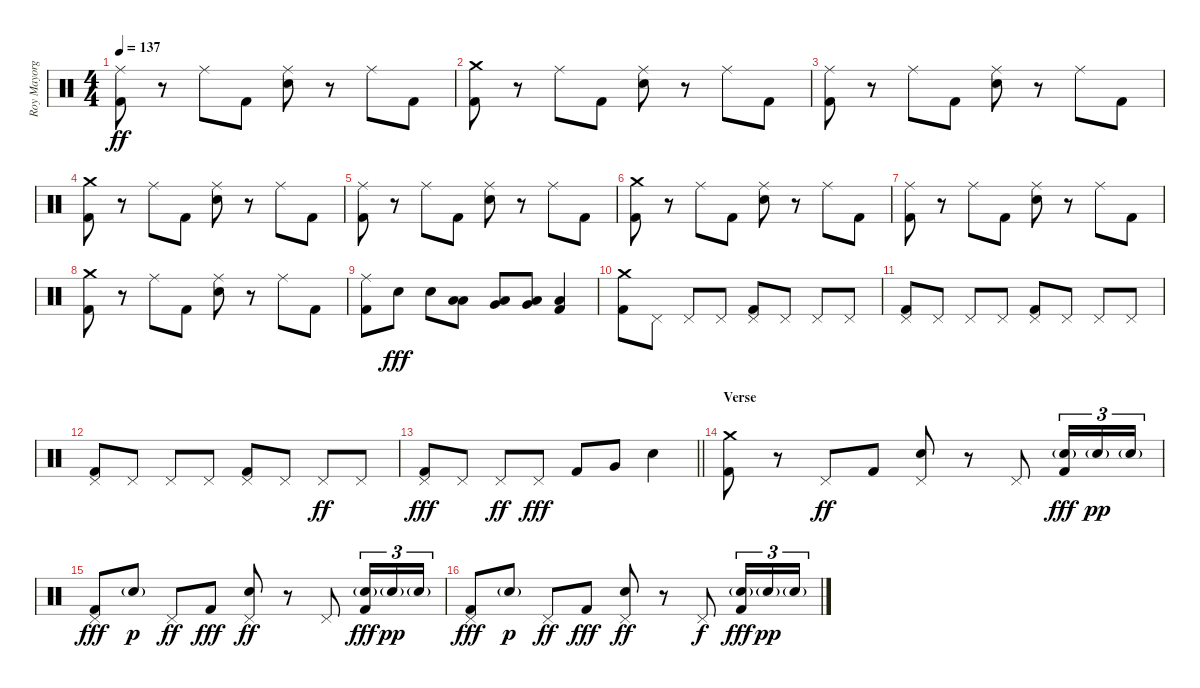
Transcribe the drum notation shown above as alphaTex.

\track ("Roy Mayorga (Drums)" "Roy Mayorg") {instrument percussion}
\staff {score}
\articulation defaults
\ts (4 4)
\tempo 137
\clef neutral
\ks c
("Ride (middle)" "Kick (hit) 2").8{dy ff} r.8 "Ride (middle)".8 "Kick (hit) 2".8 ("Ride (middle)" "Electric Snare (hit)").8 r.8 "Ride (middle)".8 "Kick (hit) 2".8 |
("Crash medium (hit)" "Kick (hit) 2").8 r.8 "Ride (middle)".8 "Kick (hit) 2".8 ("Ride (middle)" "Electric Snare (hit)").8 r.8 "Ride (middle)".8 "Kick (hit) 2".8 |
("Ride (middle)" "Kick (hit) 2").8 r.8 "Ride (middle)".8 "Kick (hit) 2".8 ("Ride (middle)" "Electric Snare (hit)").8 r.8 "Ride (middle)".8 "Kick (hit) 2".8 |
("Crash medium (hit)" "Kick (hit) 2").8 r.8 "Ride (middle)".8 "Kick (hit) 2".8 ("Ride (middle)" "Electric Snare (hit)").8 r.8 "Ride (middle)".8 "Kick (hit) 2".8 |
("Ride (middle)" "Kick (hit) 2").8 r.8 "Ride (middle)".8 "Kick (hit) 2".8 ("Ride (middle)" "Electric Snare (hit)").8 r.8 "Ride (middle)".8 "Kick (hit) 2".8 |
("Crash medium (hit)" "Kick (hit) 2").8 r.8 "Ride (middle)".8 "Kick (hit) 2".8 ("Ride (middle)" "Electric Snare (hit)").8 r.8 "Ride (middle)".8 "Kick (hit) 2".8 |
("Ride (middle)" "Kick (hit) 2").8 r.8 "Ride (middle)".8 "Kick (hit) 2".8 ("Ride (middle)" "Electric Snare (hit)").8 r.8 "Ride (middle)".8 "Kick (hit) 2".8 |
("Crash medium (hit)" "Kick (hit) 2").8 r.8 "Ride (middle)".8 "Kick (hit) 2".8 ("Ride (middle)" "Electric Snare (hit)").8 r.8 "Ride (middle)".8 "Kick (hit) 2".8 |
("Ride (middle)" "Kick (hit) 2").8 "Electric Snare (hit)".8{dy fff} "Electric Snare (hit)".8 ("Low Tom (hit)" "Low Floor Tom (hit)").8 ("Low Tom (hit)" "Very Low Tom (hit)").8 ("Very Low Tom (hit)" "Low Floor Tom (hit)").8 ("Low Floor Tom (hit)" "Kick (hit) 2").4 |
("Crash medium (hit)" "Kick (hit) 2").8 "Pedal Hi-Hat (hit)".8 "Pedal Hi-Hat (hit)".8 "Pedal Hi-Hat (hit)".8 ("Pedal Hi-Hat (hit)" "Kick (hit) 2").8 "Pedal Hi-Hat (hit)".8 "Pedal Hi-Hat (hit)".8 "Pedal Hi-Hat (hit)".8 |
("Pedal Hi-Hat (hit)" "Kick (hit) 2").8 "Pedal Hi-Hat (hit)".8 "Pedal Hi-Hat (hit)".8 "Pedal Hi-Hat (hit)".8 ("Pedal Hi-Hat (hit)" "Kick (hit) 2").8 "Pedal Hi-Hat (hit)".8 "Pedal Hi-Hat (hit)".8 "Pedal Hi-Hat (hit)".8 |
("Pedal Hi-Hat (hit)" "Kick (hit) 2").8 "Pedal Hi-Hat (hit)".8 "Pedal Hi-Hat (hit)".8 "Pedal Hi-Hat (hit)".8 ("Pedal Hi-Hat (hit)" "Kick (hit) 2").8 "Pedal Hi-Hat (hit)".8 "Pedal Hi-Hat (hit)".8{dy ff} "Pedal Hi-Hat (hit)".8 |
\barLineRight lightlight
("Pedal Hi-Hat (hit)" "Kick (hit) 2").8{dy fff} "Pedal Hi-Hat (hit)".8 "Pedal Hi-Hat (hit)".8{dy ff} "Pedal Hi-Hat (hit)".8{dy fff} "Kick (hit) 2".8 "Very Low Tom (hit)".8 "Electric Snare (hit)".4 |
\section ("" "Verse")
("Crash medium (hit)" "Kick (hit) 2").8 r.8 "Pedal Hi-Hat (hit)".8{dy ff} "Kick (hit) 2".8 ("Pedal Hi-Hat (hit)" "Electric Snare (hit)").8 r.8 "Pedal Hi-Hat (hit)".8 ("Electric Snare (hit)"{g} "Kick (hit) 2").16{tu (3 2) dy fff} "Electric Snare (hit)"{g}.16{tu (3 2) dy pp} "Electric Snare (hit)"{g}.16{tu (3 2)} |
("Pedal Hi-Hat (hit)" "Kick (hit) 2").8{dy fff} "Electric Snare (hit)"{g}.8{dy p} "Pedal Hi-Hat (hit)".8{dy ff} "Kick (hit) 2".8{dy fff} ("Pedal Hi-Hat (hit)" "Electric Snare (hit)").8{dy ff} r.8 "Pedal Hi-Hat (hit)".8 ("Electric Snare (hit)"{g} "Kick (hit) 2").16{tu (3 2) dy fff} "Electric Snare (hit)"{g}.16{tu (3 2) dy pp} "Electric Snare (hit)"{g}.16{tu (3 2)} |
("Pedal Hi-Hat (hit)" "Kick (hit) 2").8{dy fff} "Electric Snare (hit)"{g}.8{dy p} "Pedal Hi-Hat (hit)".8{dy ff} "Kick (hit) 2".8{dy fff} ("Pedal Hi-Hat (hit)" "Electric Snare (hit)").8{dy ff} r.8 "Pedal Hi-Hat (hit)".8{dy f} ("Electric Snare (hit)"{g} "Kick (hit) 2").16{tu (3 2) dy fff} "Electric Snare (hit)"{g}.16{tu (3 2) dy pp} "Electric Snare (hit)"{g}.16{tu (3 2)}
